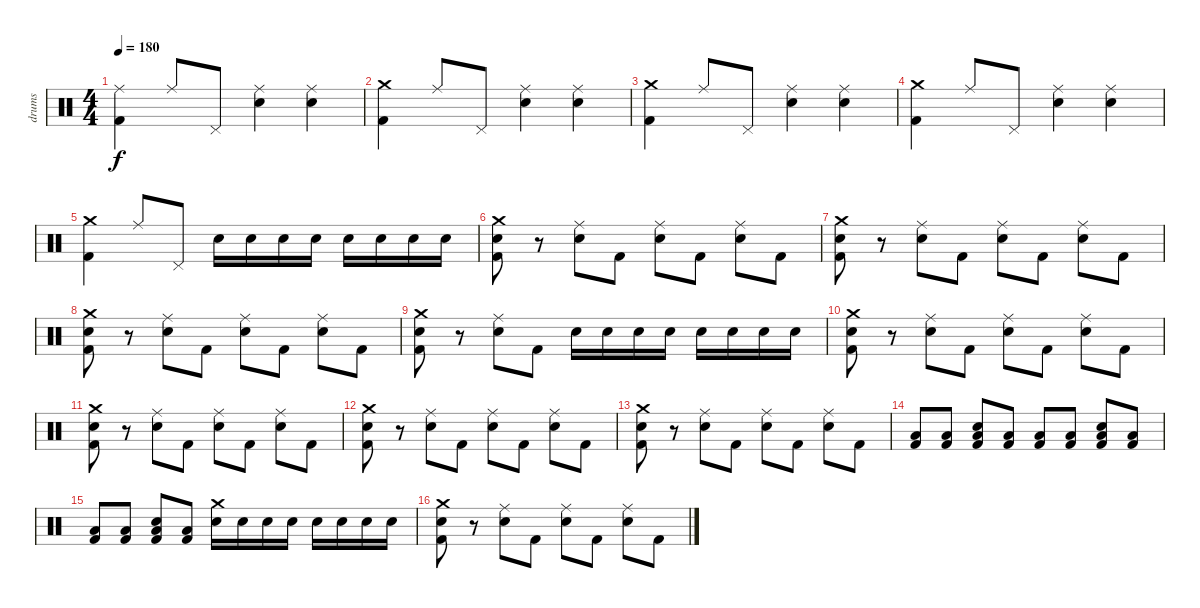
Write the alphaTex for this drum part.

\track ("drums" "drums") {instrument percussion}
\staff {score}
\articulation defaults
\ts (4 4)
\tempo 180
\clef neutral
\ks c
("Ride (middle)" "Kick (hit) 2").4{dy f} "Ride (middle)".8 "Pedal Hi-Hat (hit)".8 ("Ride (middle)" "Snare (hit) 2").4 ("Ride (middle)" "Snare (hit) 2").4 |
("Crash medium (hit)" "Kick (hit) 2").4 "Ride (middle)".8 "Pedal Hi-Hat (hit)".8 ("Ride (middle)" "Snare (hit) 2").4 ("Ride (middle)" "Snare (hit) 2").4 |
("Crash medium (hit)" "Kick (hit) 2").4 "Ride (middle)".8 "Pedal Hi-Hat (hit)".8 ("Ride (middle)" "Snare (hit) 2").4 ("Ride (middle)" "Snare (hit) 2").4 |
("Crash medium (hit)" "Kick (hit) 2").4 "Ride (middle)".8 "Pedal Hi-Hat (hit)".8 ("Ride (middle)" "Snare (hit) 2").4 ("Ride (middle)" "Snare (hit) 2").4 |
("Crash medium (hit)" "Kick (hit) 2").4 "Ride (middle)".8 "Pedal Hi-Hat (hit)".8 "Snare (hit) 2".16 "Snare (hit) 2".16 "Snare (hit) 2".16 "Snare (hit) 2".16 "Snare (hit) 2".16 "Snare (hit) 2".16 "Snare (hit) 2".16 "Snare (hit) 2".16 |
("Crash medium (hit)" "Snare (hit) 2" "Kick (hit) 2").8 r.8 ("Ride (middle)" "Snare (hit) 2").8 "Kick (hit) 2".8 ("Ride (middle)" "Snare (hit) 2").8 "Kick (hit) 2".8 ("Ride (middle)" "Snare (hit) 2").8 "Kick (hit) 2".8 |
("Crash medium (hit)" "Snare (hit) 2" "Kick (hit) 2").8 r.8 ("Ride (middle)" "Snare (hit) 2").8 "Kick (hit) 2".8 ("Ride (middle)" "Snare (hit) 2").8 "Kick (hit) 2".8 ("Ride (middle)" "Snare (hit) 2").8 "Kick (hit) 2".8 |
("Crash medium (hit)" "Snare (hit) 2" "Kick (hit) 2").8 r.8 ("Ride (middle)" "Snare (hit) 2").8 "Kick (hit) 2".8 ("Ride (middle)" "Snare (hit) 2").8 "Kick (hit) 2".8 ("Ride (middle)" "Snare (hit) 2").8 "Kick (hit) 2".8 |
("Crash medium (hit)" "Snare (hit) 2" "Kick (hit) 2").8 r.8 ("Ride (middle)" "Snare (hit) 2").8 "Kick (hit) 2".8 "Snare (hit) 2".16 "Snare (hit) 2".16 "Snare (hit) 2".16 "Snare (hit) 2".16 "Snare (hit) 2".16 "Snare (hit) 2".16 "Snare (hit) 2".16 "Snare (hit) 2".16 |
("Crash medium (hit)" "Snare (hit) 2" "Kick (hit) 2").8 r.8 ("Ride (middle)" "Snare (hit) 2").8 "Kick (hit) 2".8 ("Ride (middle)" "Snare (hit) 2").8 "Kick (hit) 2".8 ("Ride (middle)" "Snare (hit) 2").8 "Kick (hit) 2".8 |
("Crash medium (hit)" "Snare (hit) 2" "Kick (hit) 2").8 r.8 ("Ride (middle)" "Snare (hit) 2").8 "Kick (hit) 2".8 ("Ride (middle)" "Snare (hit) 2").8 "Kick (hit) 2".8 ("Ride (middle)" "Snare (hit) 2").8 "Kick (hit) 2".8 |
("Crash medium (hit)" "Snare (hit) 2" "Kick (hit) 2").8 r.8 ("Ride (middle)" "Snare (hit) 2").8 "Kick (hit) 2".8 ("Ride (middle)" "Snare (hit) 2").8 "Kick (hit) 2".8 ("Ride (middle)" "Snare (hit) 2").8 "Kick (hit) 2".8 |
("Crash medium (hit)" "Snare (hit) 2" "Kick (hit) 2").8 r.8 ("Ride (middle)" "Snare (hit) 2").8 "Kick (hit) 2".8 ("Ride (middle)" "Snare (hit) 2").8 "Kick (hit) 2".8 ("Ride (middle)" "Snare (hit) 2").8 "Kick (hit) 2".8 |
("Low Floor Tom (hit)" "Kick (hit) 2").8 ("Low Floor Tom (hit)" "Kick (hit) 2").8 ("Low Floor Tom (hit)" "Snare (hit) 2" "Kick (hit) 2").8 ("Low Floor Tom (hit)" "Kick (hit) 2").8 ("Low Floor Tom (hit)" "Kick (hit) 2").8 ("Low Floor Tom (hit)" "Kick (hit) 2").8 ("Low Floor Tom (hit)" "Snare (hit) 2" "Kick (hit) 2").8 ("Low Floor Tom (hit)" "Kick (hit) 2").8 |
("Low Floor Tom (hit)" "Kick (hit) 2").8 ("Low Floor Tom (hit)" "Kick (hit) 2").8 ("Low Floor Tom (hit)" "Snare (hit) 2" "Kick (hit) 2").8 ("Low Floor Tom (hit)" "Kick (hit) 2").8 ("Crash medium (hit)" "Snare (hit) 2").16 "Snare (hit) 2".16 "Snare (hit) 2".16 "Snare (hit) 2".16 "Snare (hit) 2".16 "Snare (hit) 2".16 "Snare (hit) 2".16 "Snare (hit) 2".16 |
("Crash medium (hit)" "Snare (hit) 2" "Kick (hit) 2").8 r.8 ("Ride (middle)" "Snare (hit) 2").8 "Kick (hit) 2".8 ("Ride (middle)" "Snare (hit) 2").8 "Kick (hit) 2".8 ("Ride (middle)" "Snare (hit) 2").8 "Kick (hit) 2".8
